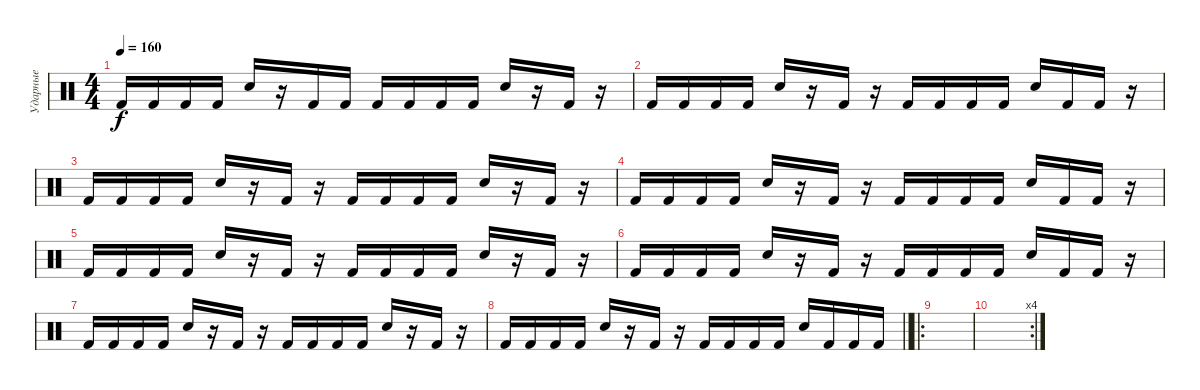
\track ("Ударные" "Ударные") {instrument percussion}
\staff {score}
\articulation defaults
\ts (4 4)
\tempo 160
\clef neutral
\ks c "Kick (hit) 2".16{dy f} "Kick (hit) 2".16 "Kick (hit) 2".16 "Kick (hit) 2".16 "Electric Snare (hit)".16
r.16 "Kick (hit) 2".16 "Kick (hit) 2".16 "Kick (hit) 2".16 "Kick (hit) 2".16 "Kick (hit) 2".16 "Kick (hit) 2".16 "Electric Snare (hit)".16 r.16 "Kick (hit) 2".16 r.16 |
"Kick (hit) 2".16 "Kick (hit) 2".16 "Kick (hit) 2".16 "Kick (hit) 2".16 "Electric Snare (hit)".16 r.16 "Kick (hit) 2".16 r.16 "Kick (hit) 2".16 "Kick (hit) 2".16 "Kick (hit) 2".16 "Kick (hit) 2".16 "Electric Snare (hit)".16 "Kick (hit) 2".16 "Kick (hit) 2".16 r.16 |
"Kick (hit) 2".16 "Kick (hit) 2".16 "Kick (hit) 2".16 "Kick (hit) 2".16 "Electric Snare (hit)".16 r.16 "Kick (hit) 2".16 r.16 "Kick (hit) 2".16 "Kick (hit) 2".16 "Kick (hit) 2".16 "Kick (hit) 2".16 "Electric Snare (hit)".16 r.16 "Kick (hit) 2".16 r.16 |
"Kick (hit) 2".16 "Kick (hit) 2".16 "Kick (hit) 2".16 "Kick (hit) 2".16 "Electric Snare (hit)".16 r.16 "Kick (hit) 2".16 r.16 "Kick (hit) 2".16 "Kick (hit) 2".16 "Kick (hit) 2".16 "Kick (hit) 2".16 "Electric Snare (hit)".16 "Kick (hit) 2".16 "Kick (hit) 2".16 r.16 |
"Kick (hit) 2".16 "Kick (hit) 2".16 "Kick (hit) 2".16 "Kick (hit) 2".16 "Electric Snare (hit)".16 r.16 "Kick (hit) 2".16 r.16 "Kick (hit) 2".16 "Kick (hit) 2".16 "Kick (hit) 2".16 "Kick (hit) 2".16 "Electric Snare (hit)".16 r.16 "Kick (hit) 2".16 r.16 |
"Kick (hit) 2".16 "Kick (hit) 2".16 "Kick (hit) 2".16 "Kick (hit) 2".16 "Electric Snare (hit)".16 r.16 "Kick (hit) 2".16 r.16 "Kick (hit) 2".16 "Kick (hit) 2".16 "Kick (hit) 2".16 "Kick (hit) 2".16 "Electric Snare (hit)".16 "Kick (hit) 2".16 "Kick (hit) 2".16 r.16 |
"Kick (hit) 2".16 "Kick (hit) 2".16 "Kick (hit) 2".16 "Kick (hit) 2".16 "Electric Snare (hit)".16 r.16 "Kick (hit) 2".16 r.16 "Kick (hit) 2".16 "Kick (hit) 2".16 "Kick (hit) 2".16 "Kick (hit) 2".16 "Electric Snare (hit)".16 r.16 "Kick (hit) 2".16 r.16 |
\barLineRight lightlight "Kick (hit) 2".16 "Kick (hit) 2".16 "Kick (hit) 2".16 "Kick (hit) 2".16 "Electric Snare (hit)".16
r.16 "Kick (hit) 2".16 r.16 "Kick (hit) 2".16 "Kick (hit) 2".16 "Kick (hit) 2".16 "Kick (hit) 2".16 "Electric Snare (hit)".16 "Kick (hit) 2".16 "Kick (hit) 2".16 "Kick (hit) 2".16 |
\ro
|
\rc 4
